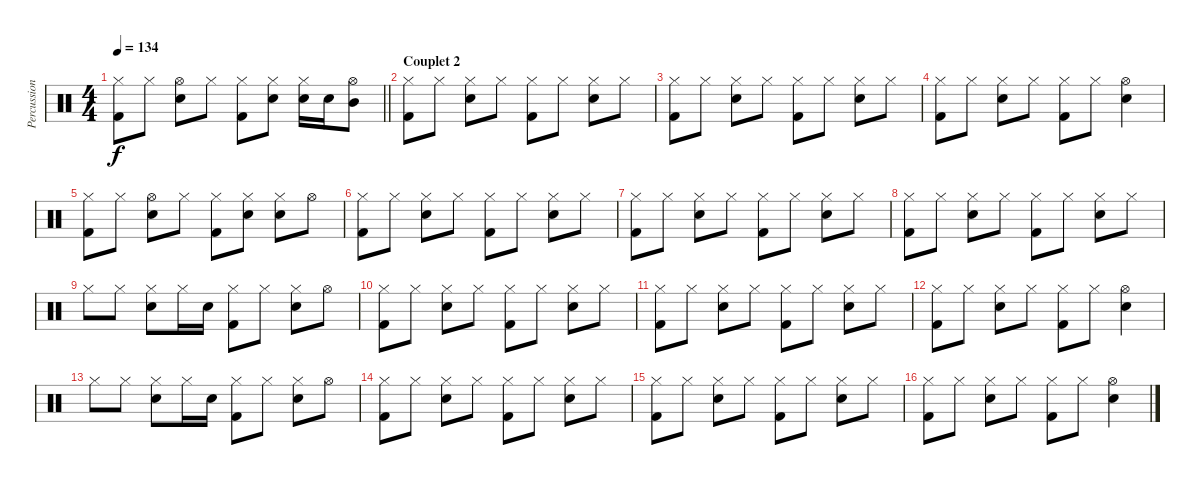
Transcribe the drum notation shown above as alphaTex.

\track ("Percussion" "Percussion") {instrument percussion}
\staff {score}
\articulation defaults
\ts (4 4)
\tempo 134
\clef neutral
\barLineRight lightlight
\ks c
("Hi-Hat (closed)" "Kick (hit) 2").8{dy f} "Hi-Hat (closed)".8 ("Hi-Hat (open)" "Snare (hit) 2").8 "Hi-Hat (closed)".8 ("Hi-Hat (closed)" "Kick (hit) 2").8 ("Hi-Hat (closed)" "Snare (hit) 2").8 ("Hi-Hat (closed)" "Snare (hit) 2").16 "Snare (hit) 2".16 ("Hi-Hat (open)" "Mid Tom (hit)").8 |
\section ("" "Couplet 2")
("Hi-Hat (closed)" "Kick (hit) 2").8 "Hi-Hat (closed)".8 ("Hi-Hat (closed)" "Snare (hit) 2").8 "Hi-Hat (closed)".8 ("Hi-Hat (closed)" "Kick (hit) 2").8 "Hi-Hat (closed)".8 ("Hi-Hat (closed)" "Snare (hit) 2").8 "Hi-Hat (closed)".8 |
("Hi-Hat (closed)" "Kick (hit) 2").8 "Hi-Hat (closed)".8 ("Hi-Hat (closed)" "Snare (hit) 2").8 "Hi-Hat (closed)".8 ("Hi-Hat (closed)" "Kick (hit) 2").8 "Hi-Hat (closed)".8 ("Hi-Hat (closed)" "Snare (hit) 2").8 "Hi-Hat (closed)".8 |
("Hi-Hat (closed)" "Kick (hit) 2").8 "Hi-Hat (closed)".8 ("Hi-Hat (closed)" "Snare (hit) 2").8 "Hi-Hat (closed)".8 ("Hi-Hat (closed)" "Kick (hit) 2").8 "Hi-Hat (closed)".8 ("Hi-Hat (open)" "Snare (hit) 2").4 |
("Hi-Hat (closed)" "Kick (hit) 2").8 "Hi-Hat (closed)".8 ("Hi-Hat (open)" "Snare (hit) 2").8 "Hi-Hat (closed)".8 ("Hi-Hat (closed)" "Kick (hit) 2").8 ("Hi-Hat (closed)" "Snare (hit) 2").8 ("Hi-Hat (closed)" "Snare (hit) 2").8 "Hi-Hat (open)".8 |
("Hi-Hat (closed)" "Kick (hit) 2").8 "Hi-Hat (closed)".8 ("Hi-Hat (closed)" "Snare (hit) 2").8 "Hi-Hat (closed)".8 ("Hi-Hat (closed)" "Kick (hit) 2").8 "Hi-Hat (closed)".8 ("Hi-Hat (closed)" "Snare (hit) 2").8 "Hi-Hat (closed)".8 |
("Hi-Hat (closed)" "Kick (hit) 2").8 "Hi-Hat (closed)".8 ("Hi-Hat (closed)" "Snare (hit) 2").8 "Hi-Hat (closed)".8 ("Hi-Hat (closed)" "Kick (hit) 2").8 "Hi-Hat (closed)".8 ("Hi-Hat (closed)" "Snare (hit) 2").8 "Hi-Hat (closed)".8 |
("Hi-Hat (closed)" "Kick (hit) 2").8 "Hi-Hat (closed)".8 ("Hi-Hat (closed)" "Snare (hit) 2").8 "Hi-Hat (closed)".8 ("Hi-Hat (closed)" "Kick (hit) 2").8 "Hi-Hat (closed)".8 ("Hi-Hat (closed)" "Snare (hit) 2").8 "Hi-Hat (closed)".8 |
"Hi-Hat (closed)".8 "Hi-Hat (closed)".8 ("Hi-Hat (closed)" "Snare (hit) 2").8 "Hi-Hat (closed)".16 "Snare (hit) 2".16 ("Hi-Hat (closed)" "Kick (hit) 2").8 "Hi-Hat (closed)".8 ("Hi-Hat (closed)" "Snare (hit) 2").8 "Hi-Hat (open)".8 |
("Hi-Hat (closed)" "Kick (hit) 2").8 "Hi-Hat (closed)".8 ("Hi-Hat (closed)" "Snare (hit) 2").8 "Hi-Hat (closed)".8 ("Hi-Hat (closed)" "Kick (hit) 2").8 "Hi-Hat (closed)".8 ("Hi-Hat (closed)" "Snare (hit) 2").8 "Hi-Hat (closed)".8 |
("Hi-Hat (closed)" "Kick (hit) 2").8 "Hi-Hat (closed)".8 ("Hi-Hat (closed)" "Snare (hit) 2").8 "Hi-Hat (closed)".8 ("Hi-Hat (closed)" "Kick (hit) 2").8 "Hi-Hat (closed)".8 ("Hi-Hat (closed)" "Snare (hit) 2").8 "Hi-Hat (closed)".8 |
("Hi-Hat (closed)" "Kick (hit) 2").8 "Hi-Hat (closed)".8 ("Hi-Hat (closed)" "Snare (hit) 2").8 "Hi-Hat (closed)".8 ("Hi-Hat (closed)" "Kick (hit) 2").8 "Hi-Hat (closed)".8 ("Hi-Hat (open)" "Snare (hit) 2").4 |
"Hi-Hat (closed)".8 "Hi-Hat (closed)".8 ("Hi-Hat (closed)" "Snare (hit) 2").8 "Hi-Hat (closed)".16 "Snare (hit) 2".16 ("Hi-Hat (closed)" "Kick (hit) 2").8 "Hi-Hat (closed)".8 ("Hi-Hat (closed)" "Snare (hit) 2").8 "Hi-Hat (open)".8 |
("Hi-Hat (closed)" "Kick (hit) 2").8 "Hi-Hat (closed)".8 ("Hi-Hat (closed)" "Snare (hit) 2").8 "Hi-Hat (closed)".8 ("Hi-Hat (closed)" "Kick (hit) 2").8 "Hi-Hat (closed)".8 ("Hi-Hat (closed)" "Snare (hit) 2").8 "Hi-Hat (closed)".8 |
("Hi-Hat (closed)" "Kick (hit) 2").8 "Hi-Hat (closed)".8 ("Hi-Hat (closed)" "Snare (hit) 2").8 "Hi-Hat (closed)".8 ("Hi-Hat (closed)" "Kick (hit) 2").8 "Hi-Hat (closed)".8 ("Hi-Hat (closed)" "Snare (hit) 2").8 "Hi-Hat (closed)".8 |
("Hi-Hat (closed)" "Kick (hit) 2").8 "Hi-Hat (closed)".8 ("Hi-Hat (closed)" "Snare (hit) 2").8 "Hi-Hat (closed)".8 ("Hi-Hat (closed)" "Kick (hit) 2").8 "Hi-Hat (closed)".8 ("Hi-Hat (open)" "Snare (hit) 2").4
